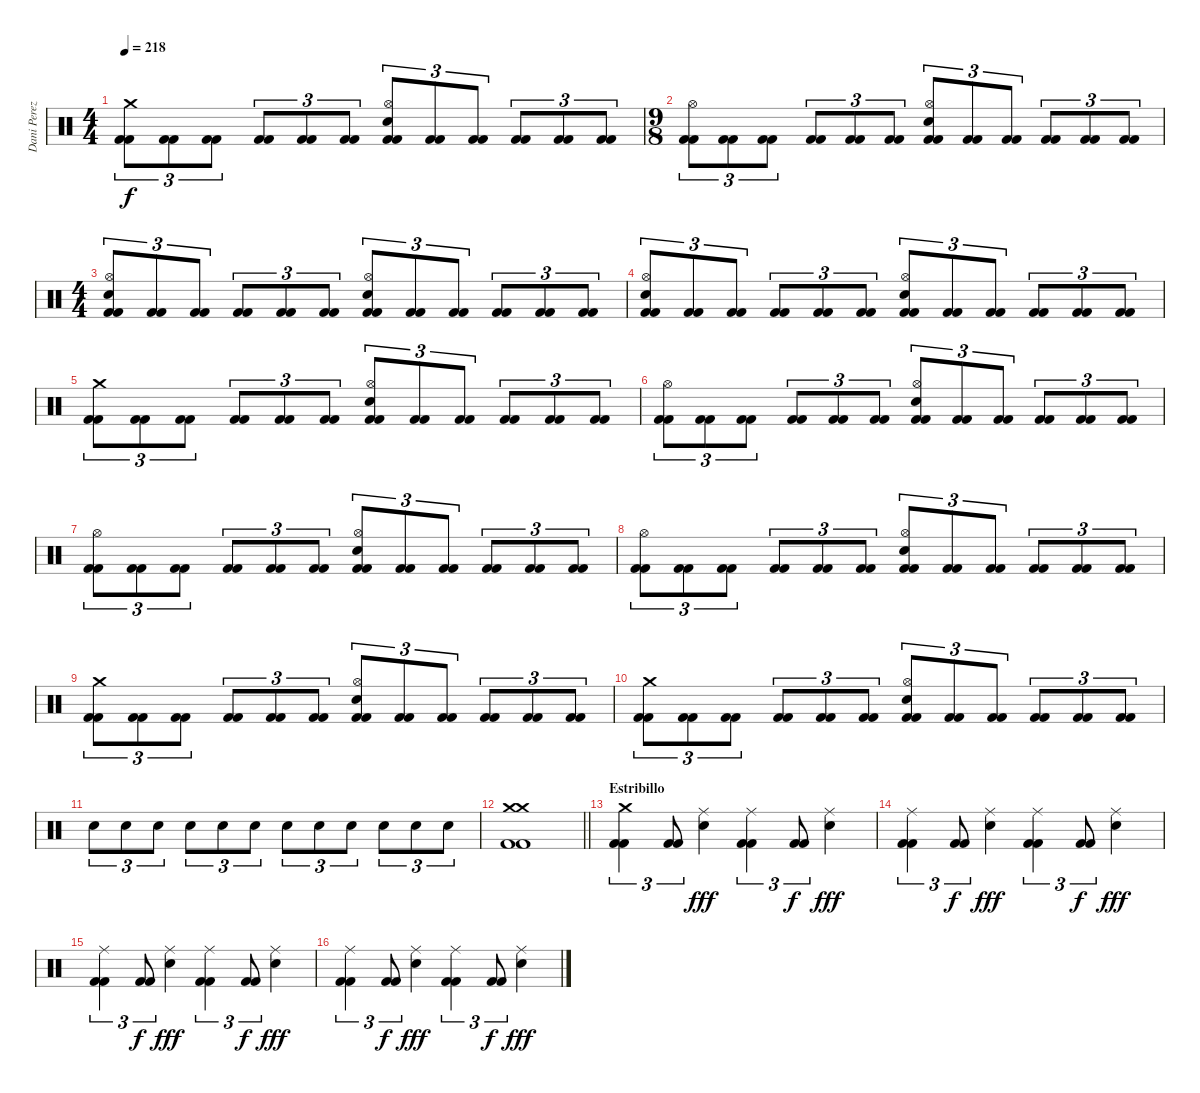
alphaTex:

\track ("Dani Perez" "Dani Perez") {instrument percussion}
\staff {score}
\articulation defaults
\ts (4 4)
\tempo 218
\clef neutral
\ks c
("Crash medium (hit)" "Kick (hit) 2" "Kick (hit) 2").8{tu (3 2) dy f} ("Kick (hit) 2" "Kick (hit) 2").8{tu (3 2)} ("Kick (hit) 2" "Kick (hit) 2").8{tu (3 2)} ("Kick (hit) 2" "Kick (hit) 2").8{tu (3 2)} ("Kick (hit) 2" "Kick (hit) 2").8{tu (3 2)} ("Kick (hit) 2" "Kick (hit) 2").8{tu (3 2)} ("Hi-Hat (open)" "Snare (hit) 2" "Kick (hit) 2" "Kick (hit) 2").8{tu (3 2)} ("Kick (hit) 2" "Kick (hit) 2").8{tu (3 2)} ("Kick (hit) 2" "Kick (hit) 2").8{tu (3 2)} ("Kick (hit) 2" "Kick (hit) 2").8{tu (3 2)} ("Kick (hit) 2" "Kick (hit) 2").8{tu (3 2)} ("Kick (hit) 2" "Kick (hit) 2").8{tu (3 2)} |
\ts (9 8)
("Hi-Hat (open)" "Kick (hit) 2" "Kick (hit) 2").8{tu (3 2)} ("Kick (hit) 2" "Kick (hit) 2").8{tu (3 2)} ("Kick (hit) 2" "Kick (hit) 2").8{tu (3 2)} ("Kick (hit) 2" "Kick (hit) 2").8{tu (3 2)} ("Kick (hit) 2" "Kick (hit) 2").8{tu (3 2)} ("Kick (hit) 2" "Kick (hit) 2").8{tu (3 2)} ("Hi-Hat (open)" "Snare (hit) 2" "Kick (hit) 2" "Kick (hit) 2").8{tu (3 2)} ("Kick (hit) 2" "Kick (hit) 2").8{tu (3 2)} ("Kick (hit) 2" "Kick (hit) 2").8{tu (3 2)} ("Kick (hit) 2" "Kick (hit) 2").8{tu (3 2)} ("Kick (hit) 2" "Kick (hit) 2").8{tu (3 2)} ("Kick (hit) 2" "Kick (hit) 2").8{tu (3 2)} |
\ts (4 4)
("Hi-Hat (open)" "Snare (hit) 2" "Kick (hit) 2" "Kick (hit) 2").8{tu (3 2)} ("Kick (hit) 2" "Kick (hit) 2").8{tu (3 2)} ("Kick (hit) 2" "Kick (hit) 2").8{tu (3 2)} ("Kick (hit) 2" "Kick (hit) 2").8{tu (3 2)} ("Kick (hit) 2" "Kick (hit) 2").8{tu (3 2)} ("Kick (hit) 2" "Kick (hit) 2").8{tu (3 2)} ("Hi-Hat (open)" "Snare (hit) 2" "Kick (hit) 2" "Kick (hit) 2").8{tu (3 2)} ("Kick (hit) 2" "Kick (hit) 2").8{tu (3 2)} ("Kick (hit) 2" "Kick (hit) 2").8{tu (3 2)} ("Kick (hit) 2" "Kick (hit) 2").8{tu (3 2)} ("Kick (hit) 2" "Kick (hit) 2").8{tu (3 2)} ("Kick (hit) 2" "Kick (hit) 2").8{tu (3 2)} |
("Hi-Hat (open)" "Snare (hit) 2" "Kick (hit) 2" "Kick (hit) 2").8{tu (3 2)} ("Kick (hit) 2" "Kick (hit) 2").8{tu (3 2)} ("Kick (hit) 2" "Kick (hit) 2").8{tu (3 2)} ("Kick (hit) 2" "Kick (hit) 2").8{tu (3 2)} ("Kick (hit) 2" "Kick (hit) 2").8{tu (3 2)} ("Kick (hit) 2" "Kick (hit) 2").8{tu (3 2)} ("Hi-Hat (open)" "Snare (hit) 2" "Kick (hit) 2" "Kick (hit) 2").8{tu (3 2)} ("Kick (hit) 2" "Kick (hit) 2").8{tu (3 2)} ("Kick (hit) 2" "Kick (hit) 2").8{tu (3 2)} ("Kick (hit) 2" "Kick (hit) 2").8{tu (3 2)} ("Kick (hit) 2" "Kick (hit) 2").8{tu (3 2)} ("Kick (hit) 2" "Kick (hit) 2").8{tu (3 2)} |
("Crash medium (hit)" "Kick (hit) 2" "Kick (hit) 2").8{tu (3 2)} ("Kick (hit) 2" "Kick (hit) 2").8{tu (3 2)} ("Kick (hit) 2" "Kick (hit) 2").8{tu (3 2)} ("Kick (hit) 2" "Kick (hit) 2").8{tu (3 2)} ("Kick (hit) 2" "Kick (hit) 2").8{tu (3 2)} ("Kick (hit) 2" "Kick (hit) 2").8{tu (3 2)} ("Hi-Hat (open)" "Snare (hit) 2" "Kick (hit) 2" "Kick (hit) 2").8{tu (3 2)} ("Kick (hit) 2" "Kick (hit) 2").8{tu (3 2)} ("Kick (hit) 2" "Kick (hit) 2").8{tu (3 2)} ("Kick (hit) 2" "Kick (hit) 2").8{tu (3 2)} ("Kick (hit) 2" "Kick (hit) 2").8{tu (3 2)} ("Kick (hit) 2" "Kick (hit) 2").8{tu (3 2)} |
("Hi-Hat (open)" "Kick (hit) 2" "Kick (hit) 2").8{tu (3 2)} ("Kick (hit) 2" "Kick (hit) 2").8{tu (3 2)} ("Kick (hit) 2" "Kick (hit) 2").8{tu (3 2)} ("Kick (hit) 2" "Kick (hit) 2").8{tu (3 2)} ("Kick (hit) 2" "Kick (hit) 2").8{tu (3 2)} ("Kick (hit) 2" "Kick (hit) 2").8{tu (3 2)} ("Hi-Hat (open)" "Snare (hit) 2" "Kick (hit) 2" "Kick (hit) 2").8{tu (3 2)} ("Kick (hit) 2" "Kick (hit) 2").8{tu (3 2)} ("Kick (hit) 2" "Kick (hit) 2").8{tu (3 2)} ("Kick (hit) 2" "Kick (hit) 2").8{tu (3 2)} ("Kick (hit) 2" "Kick (hit) 2").8{tu (3 2)} ("Kick (hit) 2" "Kick (hit) 2").8{tu (3 2)} |
("Hi-Hat (open)" "Kick (hit) 2" "Kick (hit) 2").8{tu (3 2)} ("Kick (hit) 2" "Kick (hit) 2").8{tu (3 2)} ("Kick (hit) 2" "Kick (hit) 2").8{tu (3 2)} ("Kick (hit) 2" "Kick (hit) 2").8{tu (3 2)} ("Kick (hit) 2" "Kick (hit) 2").8{tu (3 2)} ("Kick (hit) 2" "Kick (hit) 2").8{tu (3 2)} ("Hi-Hat (open)" "Snare (hit) 2" "Kick (hit) 2" "Kick (hit) 2").8{tu (3 2)} ("Kick (hit) 2" "Kick (hit) 2").8{tu (3 2)} ("Kick (hit) 2" "Kick (hit) 2").8{tu (3 2)} ("Kick (hit) 2" "Kick (hit) 2").8{tu (3 2)} ("Kick (hit) 2" "Kick (hit) 2").8{tu (3 2)} ("Kick (hit) 2" "Kick (hit) 2").8{tu (3 2)} |
("Hi-Hat (open)" "Kick (hit) 2" "Kick (hit) 2").8{tu (3 2)} ("Kick (hit) 2" "Kick (hit) 2").8{tu (3 2)} ("Kick (hit) 2" "Kick (hit) 2").8{tu (3 2)} ("Kick (hit) 2" "Kick (hit) 2").8{tu (3 2)} ("Kick (hit) 2" "Kick (hit) 2").8{tu (3 2)} ("Kick (hit) 2" "Kick (hit) 2").8{tu (3 2)} ("Hi-Hat (open)" "Snare (hit) 2" "Kick (hit) 2" "Kick (hit) 2").8{tu (3 2)} ("Kick (hit) 2" "Kick (hit) 2").8{tu (3 2)} ("Kick (hit) 2" "Kick (hit) 2").8{tu (3 2)} ("Kick (hit) 2" "Kick (hit) 2").8{tu (3 2)} ("Kick (hit) 2" "Kick (hit) 2").8{tu (3 2)} ("Kick (hit) 2" "Kick (hit) 2").8{tu (3 2)} |
("Crash medium (hit)" "Kick (hit) 2" "Kick (hit) 2").8{tu (3 2)} ("Kick (hit) 2" "Kick (hit) 2").8{tu (3 2)} ("Kick (hit) 2" "Kick (hit) 2").8{tu (3 2)} ("Kick (hit) 2" "Kick (hit) 2").8{tu (3 2)} ("Kick (hit) 2" "Kick (hit) 2").8{tu (3 2)} ("Kick (hit) 2" "Kick (hit) 2").8{tu (3 2)} ("Hi-Hat (open)" "Snare (hit) 2" "Kick (hit) 2" "Kick (hit) 2").8{tu (3 2)} ("Kick (hit) 2" "Kick (hit) 2").8{tu (3 2)} ("Kick (hit) 2" "Kick (hit) 2").8{tu (3 2)} ("Kick (hit) 2" "Kick (hit) 2").8{tu (3 2)} ("Kick (hit) 2" "Kick (hit) 2").8{tu (3 2)} ("Kick (hit) 2" "Kick (hit) 2").8{tu (3 2)} |
("Crash medium (hit)" "Kick (hit) 2" "Kick (hit) 2").8{tu (3 2)} ("Kick (hit) 2" "Kick (hit) 2").8{tu (3 2)} ("Kick (hit) 2" "Kick (hit) 2").8{tu (3 2)} ("Kick (hit) 2" "Kick (hit) 2").8{tu (3 2)} ("Kick (hit) 2" "Kick (hit) 2").8{tu (3 2)} ("Kick (hit) 2" "Kick (hit) 2").8{tu (3 2)} ("Hi-Hat (open)" "Snare (hit) 2" "Kick (hit) 2" "Kick (hit) 2").8{tu (3 2)} ("Kick (hit) 2" "Kick (hit) 2").8{tu (3 2)} ("Kick (hit) 2" "Kick (hit) 2").8{tu (3 2)} ("Kick (hit) 2" "Kick (hit) 2").8{tu (3 2)} ("Kick (hit) 2" "Kick (hit) 2").8{tu (3 2)} ("Kick (hit) 2" "Kick (hit) 2").8{tu (3 2)} |
"Snare (hit) 2".8{tu (3 2)} "Snare (hit) 2".8{tu (3 2)} "Snare (hit) 2".8{tu (3 2)} "Snare (hit) 2".8{tu (3 2)} "Snare (hit) 2".8{tu (3 2)} "Snare (hit) 2".8{tu (3 2)} "Snare (hit) 2".8{tu (3 2)} "Snare (hit) 2".8{tu (3 2)} "Snare (hit) 2".8{tu (3 2)} "Snare (hit) 2".8{tu (3 2)} "Snare (hit) 2".8{tu (3 2)} "Snare (hit) 2".8{tu (3 2)} |
\barLineRight lightlight
("Crash medium (hit)" "Crash medium (hit)" "Kick (hit) 2" "Kick (hit) 2").1 |
\section ("" "Estribillo")
("Crash medium (hit)" "Kick (hit) 2" "Kick (hit) 2").4{tu (3 2)} ("Kick (hit) 2" "Kick (hit) 2").8{tu (3 2)} ("Ride (middle)" "Snare (hit) 2").4{dy fff} ("Ride (middle)" "Kick (hit) 2" "Kick (hit) 2").4{tu (3 2)} ("Kick (hit) 2" "Kick (hit) 2").8{tu (3 2) dy f} ("Ride (middle)" "Snare (hit) 2").4{dy fff} |
("Ride (middle)" "Kick (hit) 2" "Kick (hit) 2").4{tu (3 2)} ("Kick (hit) 2" "Kick (hit) 2").8{tu (3 2) dy f} ("Ride (middle)" "Snare (hit) 2").4{dy fff} ("Ride (middle)" "Kick (hit) 2" "Kick (hit) 2").4{tu (3 2)} ("Kick (hit) 2" "Kick (hit) 2").8{tu (3 2) dy f} ("Ride (middle)" "Snare (hit) 2").4{dy fff} |
("Ride (middle)" "Kick (hit) 2" "Kick (hit) 2").4{tu (3 2)} ("Kick (hit) 2" "Kick (hit) 2").8{tu (3 2) dy f} ("Ride (middle)" "Snare (hit) 2").4{dy fff} ("Ride (middle)" "Kick (hit) 2" "Kick (hit) 2").4{tu (3 2)} ("Kick (hit) 2" "Kick (hit) 2").8{tu (3 2) dy f} ("Ride (middle)" "Snare (hit) 2").4{dy fff} |
("Ride (middle)" "Kick (hit) 2" "Kick (hit) 2").4{tu (3 2)} ("Kick (hit) 2" "Kick (hit) 2").8{tu (3 2) dy f} ("Ride (middle)" "Snare (hit) 2").4{dy fff} ("Ride (middle)" "Kick (hit) 2" "Kick (hit) 2").4{tu (3 2)} ("Kick (hit) 2" "Kick (hit) 2").8{tu (3 2) dy f} ("Ride (middle)" "Snare (hit) 2").4{dy fff}
